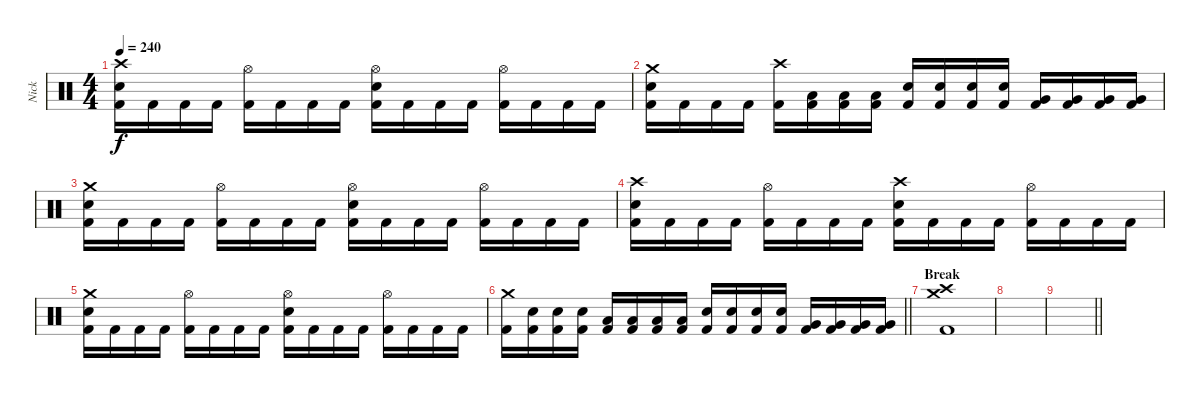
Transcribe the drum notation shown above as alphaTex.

\track ("Nick" "Nick") {instrument percussion}
\staff {score}
\articulation defaults
\ts (4 4)
\tempo 240
\clef neutral
\ks c
("Crash high (hit)" "Electric Snare (hit)" "Kick (hit) 2").16{dy f} "Kick (hit) 2".16 "Kick (hit) 2".16 "Kick (hit) 2".16 ("Hi-Hat (open)" "Kick (hit) 2").16 "Kick (hit) 2".16 "Kick (hit) 2".16 "Kick (hit) 2".16 ("Hi-Hat (open)" "Electric Snare (hit)" "Kick (hit) 2").16 "Kick (hit) 2".16 "Kick (hit) 2".16 "Kick (hit) 2".16 ("Hi-Hat (open)" "Kick (hit) 2").16 "Kick (hit) 2".16 "Kick (hit) 2".16 "Kick (hit) 2".16 |
("Crash medium (hit)" "Electric Snare (hit)" "Kick (hit) 2").16 "Kick (hit) 2".16 "Kick (hit) 2".16 "Kick (hit) 2".16 ("Crash high (hit)" "Kick (hit) 2").16 ("Low Tom (hit)" "Kick (hit) 2").16 ("Low Tom (hit)" "Kick (hit) 2").16 ("Low Tom (hit)" "Kick (hit) 2").16 ("Electric Snare (hit)" "Kick (hit) 2").16 ("Electric Snare (hit)" "Kick (hit) 2").16 ("Electric Snare (hit)" "Kick (hit) 2").16 ("Electric Snare (hit)" "Kick (hit) 2").16 ("Very Low Tom (hit)" "Kick (hit) 2").16 ("Very Low Tom (hit)" "Kick (hit) 2").16 ("Very Low Tom (hit)" "Kick (hit) 2").16 ("Very Low Tom (hit)" "Kick (hit) 2").16 |
("Crash medium (hit)" "Electric Snare (hit)" "Kick (hit) 2").16 "Kick (hit) 2".16 "Kick (hit) 2".16 "Kick (hit) 2".16 ("Hi-Hat (open)" "Kick (hit) 2").16 "Kick (hit) 2".16 "Kick (hit) 2".16 "Kick (hit) 2".16 ("Hi-Hat (open)" "Electric Snare (hit)" "Kick (hit) 2").16 "Kick (hit) 2".16 "Kick (hit) 2".16 "Kick (hit) 2".16 ("Hi-Hat (open)" "Kick (hit) 2").16 "Kick (hit) 2".16 "Kick (hit) 2".16 "Kick (hit) 2".16 |
("Crash high (hit)" "Electric Snare (hit)" "Kick (hit) 2").16 "Kick (hit) 2".16 "Kick (hit) 2".16 "Kick (hit) 2".16 ("Hi-Hat (open)" "Kick (hit) 2").16 "Kick (hit) 2".16 "Kick (hit) 2".16 "Kick (hit) 2".16 ("Crash high (hit)" "Electric Snare (hit)" "Kick (hit) 2").16 "Kick (hit) 2".16 "Kick (hit) 2".16 "Kick (hit) 2".16 ("Hi-Hat (open)" "Kick (hit) 2").16 "Kick (hit) 2".16 "Kick (hit) 2".16 "Kick (hit) 2".16 |
("Crash medium (hit)" "Electric Snare (hit)" "Kick (hit) 2").16 "Kick (hit) 2".16 "Kick (hit) 2".16 "Kick (hit) 2".16 ("Hi-Hat (open)" "Kick (hit) 2").16 "Kick (hit) 2".16 "Kick (hit) 2".16 "Kick (hit) 2".16 ("Hi-Hat (open)" "Electric Snare (hit)" "Kick (hit) 2").16 "Kick (hit) 2".16 "Kick (hit) 2".16 "Kick (hit) 2".16 ("Hi-Hat (open)" "Kick (hit) 2").16 "Kick (hit) 2".16 "Kick (hit) 2".16 "Kick (hit) 2".16 |
\barLineRight lightlight
("Crash medium (hit)" "Kick (hit) 2").16 ("Electric Snare (hit)" "Kick (hit) 2").16 ("Electric Snare (hit)" "Kick (hit) 2").16 ("Electric Snare (hit)" "Kick (hit) 2").16 ("Low Tom (hit)" "Kick (hit) 2").16 ("Low Tom (hit)" "Kick (hit) 2").16 ("Low Tom (hit)" "Kick (hit) 2").16 ("Low Tom (hit)" "Kick (hit) 2").16 ("Electric Snare (hit)" "Kick (hit) 2").16 ("Electric Snare (hit)" "Kick (hit) 2").16 ("Electric Snare (hit)" "Kick (hit) 2").16 ("Electric Snare (hit)" "Kick (hit) 2").16 ("Very Low Tom (hit)" "Kick (hit) 2").16 ("Very Low Tom (hit)" "Kick (hit) 2").16 ("Very Low Tom (hit)" "Kick (hit) 2").16 ("Very Low Tom (hit)" "Kick (hit) 2").16 |
\section ("" "Break")
("Crash medium (hit)" "Crash high (hit)" "Kick (hit) 2").1 |
|
\barLineRight lightlight
